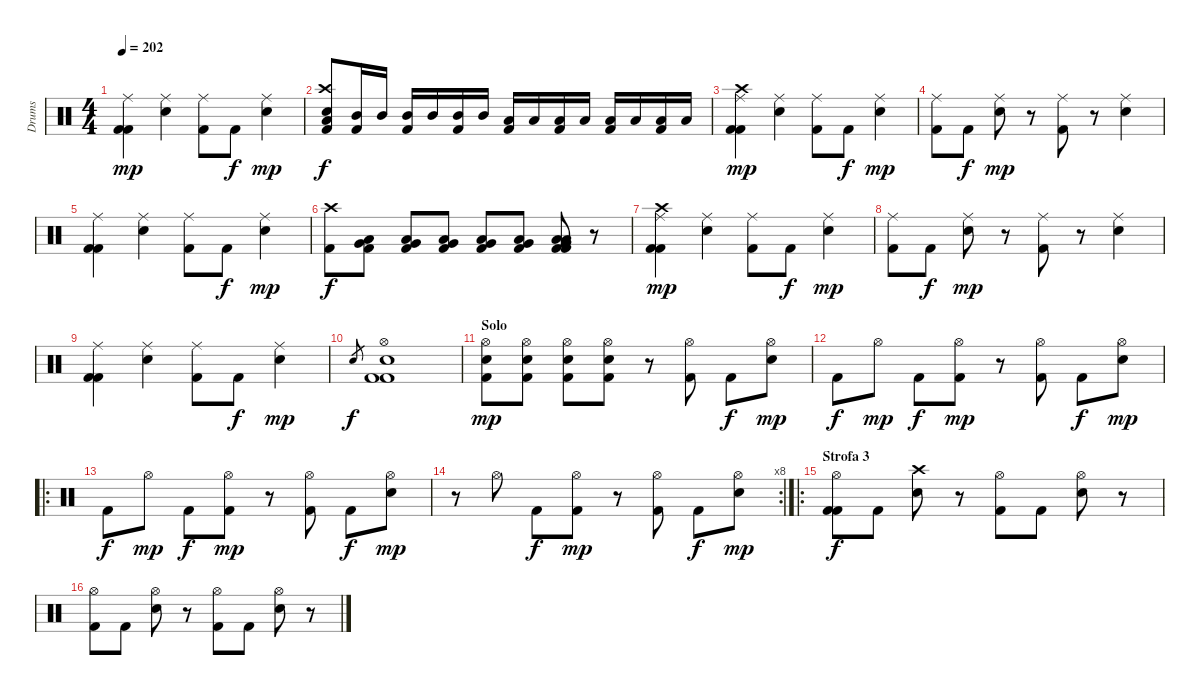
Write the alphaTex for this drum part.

\track ("Drums" "Drums") {instrument percussion}
\staff {score}
\articulation defaults
\ts (4 4)
\tempo 202
\clef neutral
\ks c
("Ride (middle)" "Kick (hit) 2" "Kick (hit) 2").4{dy mp} ("Ride (middle)" "Electric Snare (hit)").4 ("Ride (middle)" "Kick (hit) 2").8 "Kick (hit) 2".8{dy f} ("Ride (middle)" "Electric Snare (hit)").4{dy mp} |
("Crash high (hit)" "Low Tom (hit)" "Electric Snare (hit)" "Kick (hit) 2").8{dy f} ("Mid Tom (hit)" "Kick (hit) 2").16 "Mid Tom (hit)".16 ("Mid Tom (hit)" "Kick (hit) 2").16 "Mid Tom (hit)".16 ("Mid Tom (hit)" "Kick (hit) 2").16 "Mid Tom (hit)".16 ("Low Tom (hit)" "Kick (hit) 2").16 "Low Tom (hit)".16 ("Low Tom (hit)" "Kick (hit) 2").16 "Low Tom (hit)".16 ("Low Tom (hit)" "Kick (hit) 2").16 "Low Tom (hit)".16 ("Low Tom (hit)" "Kick (hit) 2").16 "Low Tom (hit)".16 |
("Crash high (hit)" "Ride (middle)" "Kick (hit) 2" "Kick (hit) 2").4{dy mp} ("Ride (middle)" "Electric Snare (hit)").4 ("Ride (middle)" "Kick (hit) 2").8 "Kick (hit) 2".8{dy f} ("Ride (middle)" "Electric Snare (hit)").4{dy mp} |
("Ride (middle)" "Kick (hit) 2").8 "Kick (hit) 2".8{dy f} ("Ride (middle)" "Electric Snare (hit)").8{dy mp} r.8 ("Ride (middle)" "Kick (hit) 2").8 r.8 ("Ride (middle)" "Electric Snare (hit)").4 |
("Ride (middle)" "Kick (hit) 2" "Kick (hit) 2").4 ("Ride (middle)" "Electric Snare (hit)").4 ("Ride (middle)" "Kick (hit) 2").8 "Kick (hit) 2".8{dy f} ("Ride (middle)" "Electric Snare (hit)").4{dy mp} |
("Crash high (hit)" "Kick (hit) 2").8{dy f} ("Low Tom (hit)" "Very Low Tom (hit)" "Kick (hit) 2").8 ("Low Tom (hit)" "Very Low Tom (hit)" "Kick (hit) 2").8 ("Low Tom (hit)" "Very Low Tom (hit)" "Kick (hit) 2").8 ("Low Tom (hit)" "Very Low Tom (hit)" "Kick (hit) 2").8 ("Low Tom (hit)" "Very Low Tom (hit)" "Kick (hit) 2").8 ("Low Tom (hit)" "Low Tom (hit)" "Very Low Tom (hit)" "Very Low Tom (hit)" "Kick (hit) 2" "Kick (hit) 2").8 r.8 |
("Crash high (hit)" "Ride (middle)" "Kick (hit) 2" "Kick (hit) 2").4{dy mp} ("Ride (middle)" "Electric Snare (hit)").4 ("Ride (middle)" "Kick (hit) 2").8 "Kick (hit) 2".8{dy f} ("Ride (middle)" "Electric Snare (hit)").4{dy mp} |
("Ride (middle)" "Kick (hit) 2").8 "Kick (hit) 2".8{dy f} ("Ride (middle)" "Electric Snare (hit)").8{dy mp} r.8 ("Ride (middle)" "Kick (hit) 2").8 r.8 ("Ride (middle)" "Electric Snare (hit)").4 |
("Ride (middle)" "Kick (hit) 2" "Kick (hit) 2").4 ("Ride (middle)" "Electric Snare (hit)").4 ("Ride (middle)" "Kick (hit) 2").8 "Kick (hit) 2".8{dy f} ("Ride (middle)" "Electric Snare (hit)").4{dy mp} |
"Electric Snare (hit)".8{gr dy f} ("Kick (hit) 2" "Hi-Hat (open)" "Electric Snare (hit)" "Kick (hit) 2").1 |
\section ("" "Solo")
("Hi-Hat (open)" "Electric Snare (hit)" "Kick (hit) 2").8{dy mp} ("Hi-Hat (open)" "Electric Snare (hit)" "Kick (hit) 2").8 ("Hi-Hat (open)" "Electric Snare (hit)" "Kick (hit) 2").8 ("Hi-Hat (open)" "Electric Snare (hit)" "Kick (hit) 2").8 r.8 ("Hi-Hat (open)" "Kick (hit) 2").8 "Kick (hit) 2".8{dy f} ("Hi-Hat (open)" "Electric Snare (hit)").8{dy mp} |
"Kick (hit) 2".8{dy f} "Hi-Hat (open)".8{dy mp} "Kick (hit) 2".8{dy f} ("Hi-Hat (open)" "Kick (hit) 2").8{dy mp} r.8 ("Hi-Hat (open)" "Kick (hit) 2").8 "Kick (hit) 2".8{dy f} ("Hi-Hat (open)" "Electric Snare (hit)").8{dy mp} |
\ro "Kick (hit) 2".8{dy f} "Hi-Hat (open)".8{dy mp} "Kick (hit) 2".8{dy f}
("Hi-Hat (open)" "Kick (hit) 2").8{dy mp} r.8 ("Hi-Hat (open)" "Kick (hit) 2").8 "Kick (hit) 2".8{dy f} ("Hi-Hat (open)" "Electric Snare (hit)").8{dy mp} |
\rc 8
r.8 "Hi-Hat (open)".8 "Kick (hit) 2".8{dy f} ("Hi-Hat (open)" "Kick (hit) 2").8{dy mp} r.8 ("Hi-Hat (open)" "Kick (hit) 2").8 "Kick (hit) 2".8{dy f} ("Hi-Hat (open)" "Electric Snare (hit)").8{dy mp} |
\ro
\section ("" "Strofa 3")
("Hi-Hat (open)" "Kick (hit) 2" "Kick (hit) 2").8{dy f} "Kick (hit) 2".8 ("Crash high (hit)" "Electric Snare (hit)").8 r.8 ("Hi-Hat (open)" "Kick (hit) 2").8 "Kick (hit) 2".8 ("Hi-Hat (open)" "Electric Snare (hit)").8 r.8 |
("Hi-Hat (open)" "Kick (hit) 2").8 "Kick (hit) 2".8 ("Hi-Hat (open)" "Electric Snare (hit)").8 r.8 ("Hi-Hat (open)" "Kick (hit) 2").8 "Kick (hit) 2".8 ("Hi-Hat (open)" "Electric Snare (hit)").8 r.8
